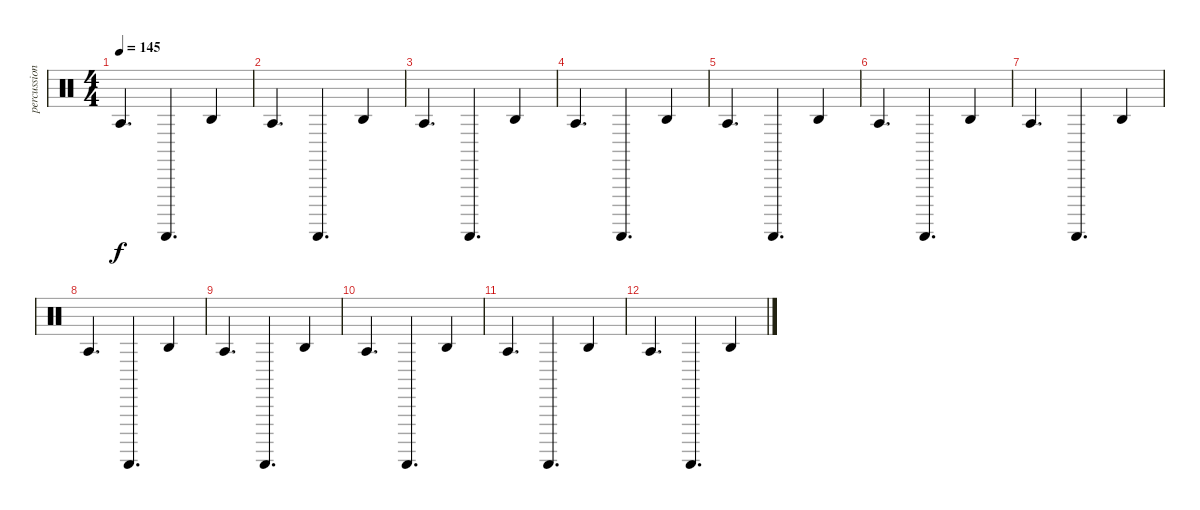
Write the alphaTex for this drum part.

\track ("percussion" "percussion") {instrument percussion}
\staff {score}
\articulation defaults
\ts (4 4)
\tempo 145
\clef neutral
\ks c "Agogo tow (hit)".4{d dy f} "Guiro (scrap-return)".4{d} "Agogo high (hit)".4
|
"Agogo tow (hit)".4{d} "Guiro (scrap-return)".4{d} "Agogo high (hit)".4 |
"Agogo tow (hit)".4{d} "Guiro (scrap-return)".4{d} "Agogo high (hit)".4 |
"Agogo tow (hit)".4{d} "Guiro (scrap-return)".4{d} "Agogo high (hit)".4 |
"Agogo tow (hit)".4{d} "Guiro (scrap-return)".4{d} "Agogo high (hit)".4 |
"Agogo tow (hit)".4{d} "Guiro (scrap-return)".4{d} "Agogo high (hit)".4 |
"Agogo tow (hit)".4{d} "Guiro (scrap-return)".4{d} "Agogo high (hit)".4 |
"Agogo tow (hit)".4{d} "Guiro (scrap-return)".4{d} "Agogo high (hit)".4 |
"Agogo tow (hit)".4{d} "Guiro (scrap-return)".4{d} "Agogo high (hit)".4 |
"Agogo tow (hit)".4{d} "Guiro (scrap-return)".4{d} "Agogo high (hit)".4 |
"Agogo tow (hit)".4{d} "Guiro (scrap-return)".4{d} "Agogo high (hit)".4 |
"Agogo tow (hit)".4{d} "Guiro (scrap-return)".4{d} "Agogo high (hit)".4
